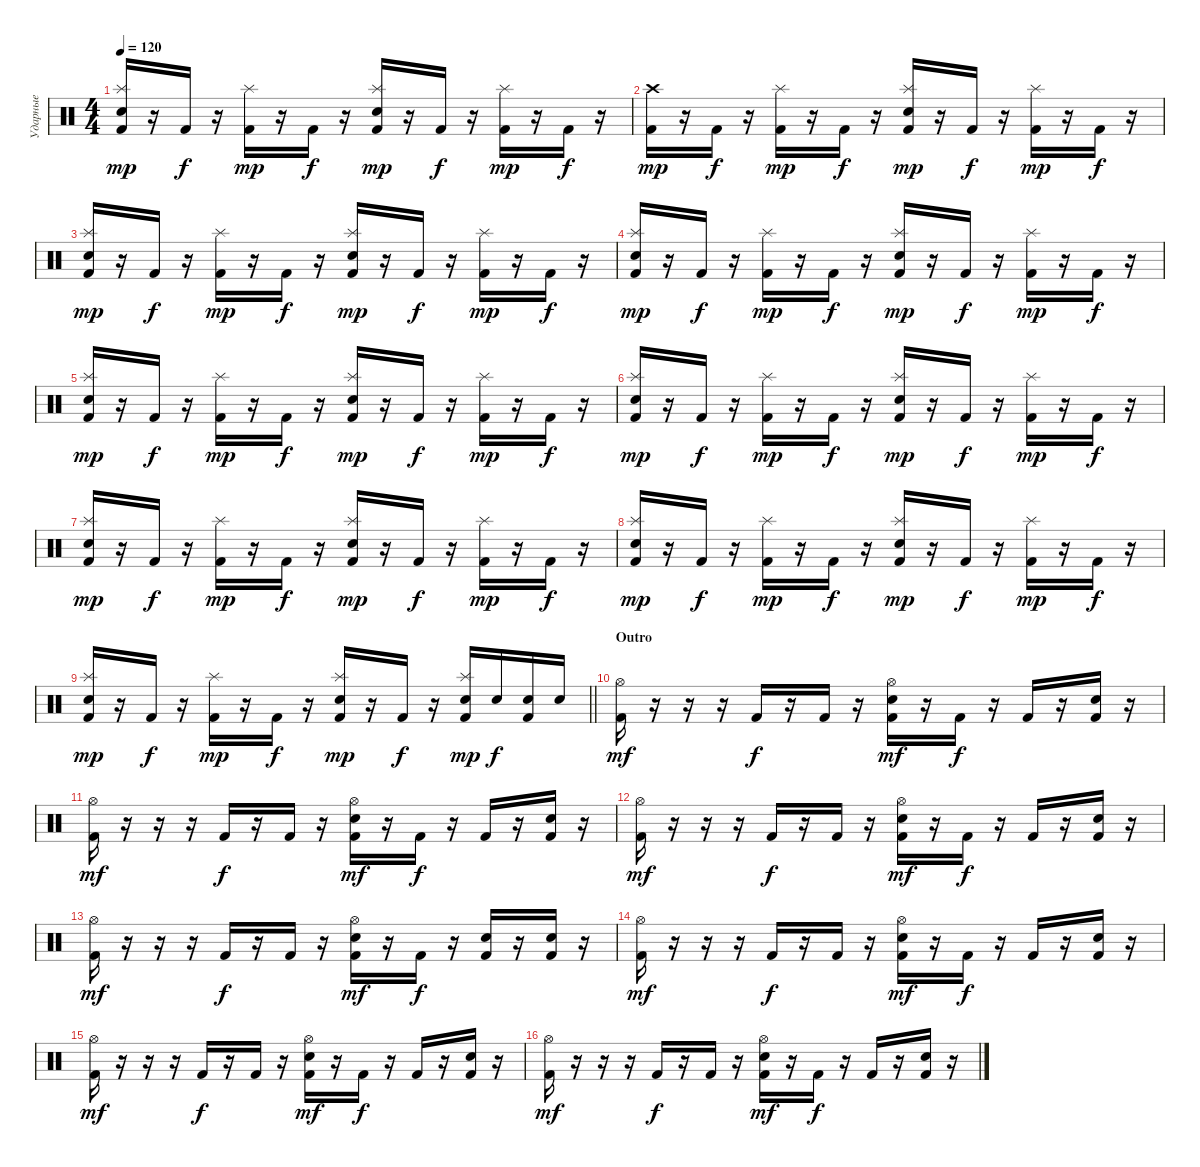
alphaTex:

\track ("Ударные" "Ударные") {instrument percussion}
\staff {score}
\articulation defaults
\ts (4 4)
\tempo 120
\clef neutral
\ks c
("Kick (hit) 2" "Splash (hit)" "Snare (hit) 2").16{dy mp} r.16 "Kick (hit) 2".16{dy f} r.16 ("Kick (hit) 2" "Splash (hit)").16{dy mp} r.16 "Kick (hit) 2".16{dy f} r.16 ("Kick (hit) 2" "Splash (hit)" "Snare (hit) 2").16{dy mp} r.16 "Kick (hit) 2".16{dy f} r.16 ("Kick (hit) 2" "Splash (hit)").16{dy mp} r.16 "Kick (hit) 2".16{dy f} r.16 |
("Kick (hit) 2" "Crash high (hit)").16{dy mp} r.16 "Kick (hit) 2".16{dy f} r.16 ("Kick (hit) 2" "Splash (hit)").16{dy mp} r.16 "Kick (hit) 2".16{dy f} r.16 ("Kick (hit) 2" "Splash (hit)" "Snare (hit) 2").16{dy mp} r.16 "Kick (hit) 2".16{dy f} r.16 ("Kick (hit) 2" "Splash (hit)").16{dy mp} r.16 "Kick (hit) 2".16{dy f} r.16 |
("Kick (hit) 2" "Splash (hit)" "Snare (hit) 2").16{dy mp} r.16 "Kick (hit) 2".16{dy f} r.16 ("Kick (hit) 2" "Splash (hit)").16{dy mp} r.16 "Kick (hit) 2".16{dy f} r.16 ("Kick (hit) 2" "Splash (hit)" "Snare (hit) 2").16{dy mp} r.16 "Kick (hit) 2".16{dy f} r.16 ("Kick (hit) 2" "Splash (hit)").16{dy mp} r.16 "Kick (hit) 2".16{dy f} r.16 |
("Kick (hit) 2" "Splash (hit)" "Snare (hit) 2").16{dy mp} r.16 "Kick (hit) 2".16{dy f} r.16 ("Kick (hit) 2" "Splash (hit)").16{dy mp} r.16 "Kick (hit) 2".16{dy f} r.16 ("Kick (hit) 2" "Splash (hit)" "Snare (hit) 2").16{dy mp} r.16 "Kick (hit) 2".16{dy f} r.16 ("Kick (hit) 2" "Splash (hit)").16{dy mp} r.16 "Kick (hit) 2".16{dy f} r.16 |
("Kick (hit) 2" "Splash (hit)" "Snare (hit) 2").16{dy mp} r.16 "Kick (hit) 2".16{dy f} r.16 ("Kick (hit) 2" "Splash (hit)").16{dy mp} r.16 "Kick (hit) 2".16{dy f} r.16 ("Kick (hit) 2" "Splash (hit)" "Snare (hit) 2").16{dy mp} r.16 "Kick (hit) 2".16{dy f} r.16 ("Kick (hit) 2" "Splash (hit)").16{dy mp} r.16 "Kick (hit) 2".16{dy f} r.16 |
("Kick (hit) 2" "Splash (hit)" "Snare (hit) 2").16{dy mp} r.16 "Kick (hit) 2".16{dy f} r.16 ("Kick (hit) 2" "Splash (hit)").16{dy mp} r.16 "Kick (hit) 2".16{dy f} r.16 ("Kick (hit) 2" "Splash (hit)" "Snare (hit) 2").16{dy mp} r.16 "Kick (hit) 2".16{dy f} r.16 ("Kick (hit) 2" "Splash (hit)").16{dy mp} r.16 "Kick (hit) 2".16{dy f} r.16 |
("Kick (hit) 2" "Splash (hit)" "Snare (hit) 2").16{dy mp} r.16 "Kick (hit) 2".16{dy f} r.16 ("Kick (hit) 2" "Splash (hit)").16{dy mp} r.16 "Kick (hit) 2".16{dy f} r.16 ("Kick (hit) 2" "Splash (hit)" "Snare (hit) 2").16{dy mp} r.16 "Kick (hit) 2".16{dy f} r.16 ("Kick (hit) 2" "Splash (hit)").16{dy mp} r.16 "Kick (hit) 2".16{dy f} r.16 |
("Kick (hit) 2" "Splash (hit)" "Snare (hit) 2").16{dy mp} r.16 "Kick (hit) 2".16{dy f} r.16 ("Kick (hit) 2" "Splash (hit)").16{dy mp} r.16 "Kick (hit) 2".16{dy f} r.16 ("Kick (hit) 2" "Splash (hit)" "Snare (hit) 2").16{dy mp} r.16 "Kick (hit) 2".16{dy f} r.16 ("Kick (hit) 2" "Splash (hit)").16{dy mp} r.16 "Kick (hit) 2".16{dy f} r.16 |
\barLineRight lightlight
("Kick (hit) 2" "Splash (hit)" "Snare (hit) 2").16{dy mp} r.16 "Kick (hit) 2".16{dy f} r.16 ("Kick (hit) 2" "Splash (hit)").16{dy mp} r.16 "Kick (hit) 2".16{dy f} r.16 ("Kick (hit) 2" "Splash (hit)" "Snare (hit) 2").16{dy mp} r.16 "Kick (hit) 2".16{dy f} r.16 ("Kick (hit) 2" "Splash (hit)" "Snare (hit) 2").16{dy mp} "Snare (hit) 2".16{dy f} ("Kick (hit) 2" "Snare (hit) 2").16 "Snare (hit) 2".16 |
\section ("" "Outro")
("Kick (hit) 2" "Hi-Hat (open)").16{dy mf} r.16 r.16 r.16 "Kick (hit) 2".16{dy f} r.16 "Kick (hit) 2".16 r.16 ("Kick (hit) 2" "Hi-Hat (open)" "Snare (hit) 2").16{dy mf} r.16 "Kick (hit) 2".16{dy f} r.16 "Kick (hit) 2".16 r.16 ("Kick (hit) 2" "Snare (hit) 2").16 r.16 |
("Kick (hit) 2" "Hi-Hat (open)").16{dy mf} r.16 r.16 r.16 "Kick (hit) 2".16{dy f} r.16 "Kick (hit) 2".16 r.16 ("Kick (hit) 2" "Hi-Hat (open)" "Snare (hit) 2").16{dy mf} r.16 "Kick (hit) 2".16{dy f} r.16 "Kick (hit) 2".16 r.16 ("Kick (hit) 2" "Snare (hit) 2").16 r.16 |
("Kick (hit) 2" "Hi-Hat (open)").16{dy mf} r.16 r.16 r.16 "Kick (hit) 2".16{dy f} r.16 "Kick (hit) 2".16 r.16 ("Kick (hit) 2" "Hi-Hat (open)" "Snare (hit) 2").16{dy mf} r.16 "Kick (hit) 2".16{dy f} r.16 "Kick (hit) 2".16 r.16 ("Kick (hit) 2" "Snare (hit) 2").16 r.16 |
("Kick (hit) 2" "Hi-Hat (open)").16{dy mf} r.16 r.16 r.16 "Kick (hit) 2".16{dy f} r.16 "Kick (hit) 2".16 r.16 ("Kick (hit) 2" "Hi-Hat (open)" "Snare (hit) 2").16{dy mf} r.16 "Kick (hit) 2".16{dy f} r.16 ("Kick (hit) 2" "Snare (hit) 2").16 r.16 ("Kick (hit) 2" "Snare (hit) 2").16 r.16 |
("Kick (hit) 2" "Hi-Hat (open)").16{dy mf} r.16 r.16 r.16 "Kick (hit) 2".16{dy f} r.16 "Kick (hit) 2".16 r.16 ("Kick (hit) 2" "Hi-Hat (open)" "Snare (hit) 2").16{dy mf} r.16 "Kick (hit) 2".16{dy f} r.16 "Kick (hit) 2".16 r.16 ("Kick (hit) 2" "Snare (hit) 2").16 r.16 |
("Kick (hit) 2" "Hi-Hat (open)").16{dy mf} r.16 r.16 r.16 "Kick (hit) 2".16{dy f} r.16 "Kick (hit) 2".16 r.16 ("Kick (hit) 2" "Hi-Hat (open)" "Snare (hit) 2").16{dy mf} r.16 "Kick (hit) 2".16{dy f} r.16 "Kick (hit) 2".16 r.16 ("Kick (hit) 2" "Snare (hit) 2").16 r.16 |
("Kick (hit) 2" "Hi-Hat (open)").16{dy mf} r.16 r.16 r.16 "Kick (hit) 2".16{dy f} r.16 "Kick (hit) 2".16 r.16 ("Kick (hit) 2" "Hi-Hat (open)" "Snare (hit) 2").16{dy mf} r.16 "Kick (hit) 2".16{dy f} r.16 "Kick (hit) 2".16 r.16 ("Kick (hit) 2" "Snare (hit) 2").16 r.16
